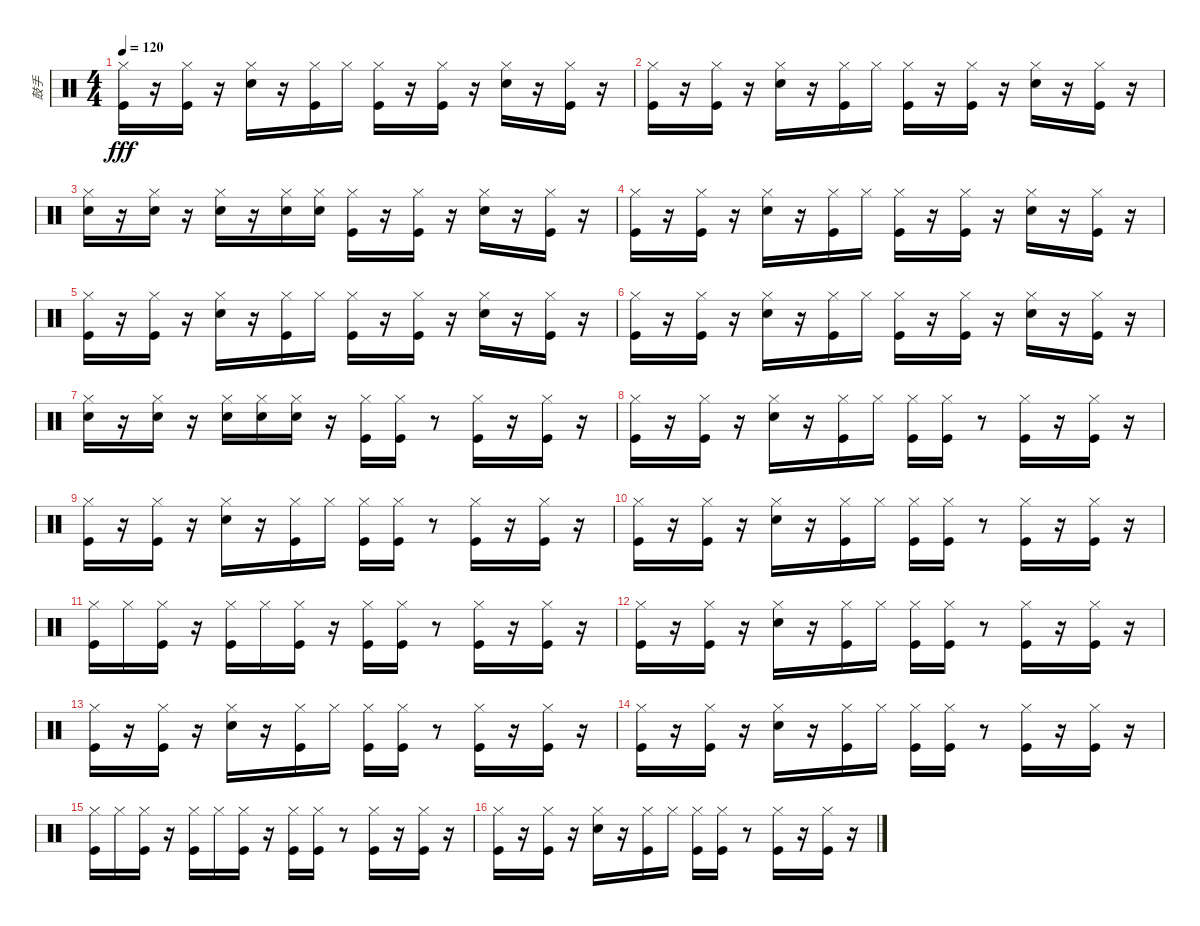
\track ("鼓手" "鼓手") {instrument percussion}
\staff {score}
\articulation defaults
\ts (4 4)
\tempo 120
\clef neutral
\ks c
("Kick (hit)" "Hi-Hat (closed)").16{dy fff} r.16 ("Kick (hit)" "Hi-Hat (closed)").16 r.16 ("Snare (hit) 2" "Hi-Hat (closed)").16 r.16 ("Kick (hit)" "Hi-Hat (closed)").16 "Hi-Hat (closed)".16 ("Kick (hit)" "Hi-Hat (closed)").16 r.16 ("Kick (hit)" "Hi-Hat (closed)").16 r.16 ("Snare (hit) 2" "Hi-Hat (closed)").16 r.16 ("Kick (hit)" "Hi-Hat (closed)").16 r.16 |
("Kick (hit)" "Hi-Hat (closed)").16 r.16 ("Kick (hit)" "Hi-Hat (closed)").16 r.16 ("Snare (hit) 2" "Hi-Hat (closed)").16 r.16 ("Kick (hit)" "Hi-Hat (closed)").16 "Hi-Hat (closed)".16 ("Kick (hit)" "Hi-Hat (closed)").16 r.16 ("Kick (hit)" "Hi-Hat (closed)").16 r.16 ("Snare (hit) 2" "Hi-Hat (closed)").16 r.16 ("Kick (hit)" "Hi-Hat (closed)").16 r.16 |
("Snare (hit) 2" "Hi-Hat (closed)").16 r.16 ("Snare (hit) 2" "Hi-Hat (closed)").16 r.16 ("Snare (hit) 2" "Hi-Hat (closed)").16 r.16 ("Snare (hit) 2" "Hi-Hat (closed)").16 ("Snare (hit) 2" "Hi-Hat (closed)").16 ("Kick (hit)" "Hi-Hat (closed)").16 r.16 ("Kick (hit)" "Hi-Hat (closed)").16 r.16 ("Snare (hit) 2" "Hi-Hat (closed)").16 r.16 ("Kick (hit)" "Hi-Hat (closed)").16 r.16 |
("Kick (hit)" "Hi-Hat (closed)").16 r.16 ("Kick (hit)" "Hi-Hat (closed)").16 r.16 ("Snare (hit) 2" "Hi-Hat (closed)").16 r.16 ("Kick (hit)" "Hi-Hat (closed)").16 "Hi-Hat (closed)".16 ("Kick (hit)" "Hi-Hat (closed)").16 r.16 ("Kick (hit)" "Hi-Hat (closed)").16 r.16 ("Snare (hit) 2" "Hi-Hat (closed)").16 r.16 ("Kick (hit)" "Hi-Hat (closed)").16 r.16 |
("Kick (hit)" "Hi-Hat (closed)").16 r.16 ("Kick (hit)" "Hi-Hat (closed)").16 r.16 ("Snare (hit) 2" "Hi-Hat (closed)").16 r.16 ("Kick (hit)" "Hi-Hat (closed)").16 "Hi-Hat (closed)".16 ("Kick (hit)" "Hi-Hat (closed)").16 r.16 ("Kick (hit)" "Hi-Hat (closed)").16 r.16 ("Snare (hit) 2" "Hi-Hat (closed)").16 r.16 ("Kick (hit)" "Hi-Hat (closed)").16 r.16 |
("Kick (hit)" "Hi-Hat (closed)").16 r.16 ("Kick (hit)" "Hi-Hat (closed)").16 r.16 ("Snare (hit) 2" "Hi-Hat (closed)").16 r.16 ("Kick (hit)" "Hi-Hat (closed)").16 "Hi-Hat (closed)".16 ("Kick (hit)" "Hi-Hat (closed)").16 r.16 ("Kick (hit)" "Hi-Hat (closed)").16 r.16 ("Snare (hit) 2" "Hi-Hat (closed)").16 r.16 ("Kick (hit)" "Hi-Hat (closed)").16 r.16 |
("Snare (hit) 2" "Hi-Hat (closed)").16 r.16 ("Snare (hit) 2" "Hi-Hat (closed)").16 r.16 ("Snare (hit) 2" "Hi-Hat (closed)").16 ("Snare (hit) 2" "Hi-Hat (closed)").16 ("Snare (hit) 2" "Hi-Hat (closed)").16 r.16 ("Kick (hit)" "Hi-Hat (closed)").16 ("Kick (hit)" "Hi-Hat (closed)").16 r.8 ("Kick (hit)" "Hi-Hat (closed)").16 r.16 ("Kick (hit)" "Hi-Hat (closed)").16 r.16 |
("Kick (hit)" "Hi-Hat (closed)").16 r.16 ("Kick (hit)" "Hi-Hat (closed)").16 r.16 ("Snare (hit) 2" "Hi-Hat (closed)").16 r.16 ("Kick (hit)" "Hi-Hat (closed)").16 "Hi-Hat (closed)".16 ("Kick (hit)" "Hi-Hat (closed)").16 ("Kick (hit)" "Hi-Hat (closed)").16 r.8 ("Kick (hit)" "Hi-Hat (closed)").16 r.16 ("Kick (hit)" "Hi-Hat (closed)").16 r.16 |
("Kick (hit)" "Hi-Hat (closed)").16 r.16 ("Kick (hit)" "Hi-Hat (closed)").16 r.16 ("Snare (hit) 2" "Hi-Hat (closed)").16 r.16 ("Kick (hit)" "Hi-Hat (closed)").16 "Hi-Hat (closed)".16 ("Kick (hit)" "Hi-Hat (closed)").16 ("Kick (hit)" "Hi-Hat (closed)").16 r.8 ("Kick (hit)" "Hi-Hat (closed)").16 r.16 ("Kick (hit)" "Hi-Hat (closed)").16 r.16 |
("Kick (hit)" "Hi-Hat (closed)").16 r.16 ("Kick (hit)" "Hi-Hat (closed)").16 r.16 ("Snare (hit) 2" "Hi-Hat (closed)").16 r.16 ("Kick (hit)" "Hi-Hat (closed)").16 "Hi-Hat (closed)".16 ("Kick (hit)" "Hi-Hat (closed)").16 ("Kick (hit)" "Hi-Hat (closed)").16 r.8 ("Kick (hit)" "Hi-Hat (closed)").16 r.16 ("Kick (hit)" "Hi-Hat (closed)").16 r.16 |
("Kick (hit)" "Hi-Hat (closed)").16 "Hi-Hat (closed)".16 ("Kick (hit)" "Hi-Hat (closed)").16 r.16 ("Kick (hit)" "Hi-Hat (closed)").16 "Hi-Hat (closed)".16 ("Kick (hit)" "Hi-Hat (closed)").16 r.16 ("Kick (hit)" "Hi-Hat (closed)").16 ("Kick (hit)" "Hi-Hat (closed)").16 r.8 ("Kick (hit)" "Hi-Hat (closed)").16 r.16 ("Kick (hit)" "Hi-Hat (closed)").16 r.16 |
("Kick (hit)" "Hi-Hat (closed)").16 r.16 ("Kick (hit)" "Hi-Hat (closed)").16 r.16 ("Snare (hit) 2" "Hi-Hat (closed)").16 r.16 ("Kick (hit)" "Hi-Hat (closed)").16 "Hi-Hat (closed)".16 ("Kick (hit)" "Hi-Hat (closed)").16 ("Kick (hit)" "Hi-Hat (closed)").16 r.8 ("Kick (hit)" "Hi-Hat (closed)").16 r.16 ("Kick (hit)" "Hi-Hat (closed)").16 r.16 |
("Kick (hit)" "Hi-Hat (closed)").16 r.16 ("Kick (hit)" "Hi-Hat (closed)").16 r.16 ("Snare (hit) 2" "Hi-Hat (closed)").16 r.16 ("Kick (hit)" "Hi-Hat (closed)").16 "Hi-Hat (closed)".16 ("Kick (hit)" "Hi-Hat (closed)").16 ("Kick (hit)" "Hi-Hat (closed)").16 r.8 ("Kick (hit)" "Hi-Hat (closed)").16 r.16 ("Kick (hit)" "Hi-Hat (closed)").16 r.16 |
("Kick (hit)" "Hi-Hat (closed)").16 r.16 ("Kick (hit)" "Hi-Hat (closed)").16 r.16 ("Snare (hit) 2" "Hi-Hat (closed)").16 r.16 ("Kick (hit)" "Hi-Hat (closed)").16 "Hi-Hat (closed)".16 ("Kick (hit)" "Hi-Hat (closed)").16 ("Kick (hit)" "Hi-Hat (closed)").16 r.8 ("Kick (hit)" "Hi-Hat (closed)").16 r.16 ("Kick (hit)" "Hi-Hat (closed)").16 r.16 |
("Kick (hit)" "Hi-Hat (closed)").16 "Hi-Hat (closed)".16 ("Kick (hit)" "Hi-Hat (closed)").16 r.16 ("Kick (hit)" "Hi-Hat (closed)").16 "Hi-Hat (closed)".16 ("Kick (hit)" "Hi-Hat (closed)").16 r.16 ("Kick (hit)" "Hi-Hat (closed)").16 ("Kick (hit)" "Hi-Hat (closed)").16 r.8 ("Kick (hit)" "Hi-Hat (closed)").16 r.16 ("Kick (hit)" "Hi-Hat (closed)").16 r.16 |
("Kick (hit)" "Hi-Hat (closed)").16 r.16 ("Kick (hit)" "Hi-Hat (closed)").16 r.16 ("Snare (hit) 2" "Hi-Hat (closed)").16 r.16 ("Kick (hit)" "Hi-Hat (closed)").16 "Hi-Hat (closed)".16 ("Kick (hit)" "Hi-Hat (closed)").16 ("Kick (hit)" "Hi-Hat (closed)").16 r.8 ("Kick (hit)" "Hi-Hat (closed)").16 r.16 ("Kick (hit)" "Hi-Hat (closed)").16 r.16
